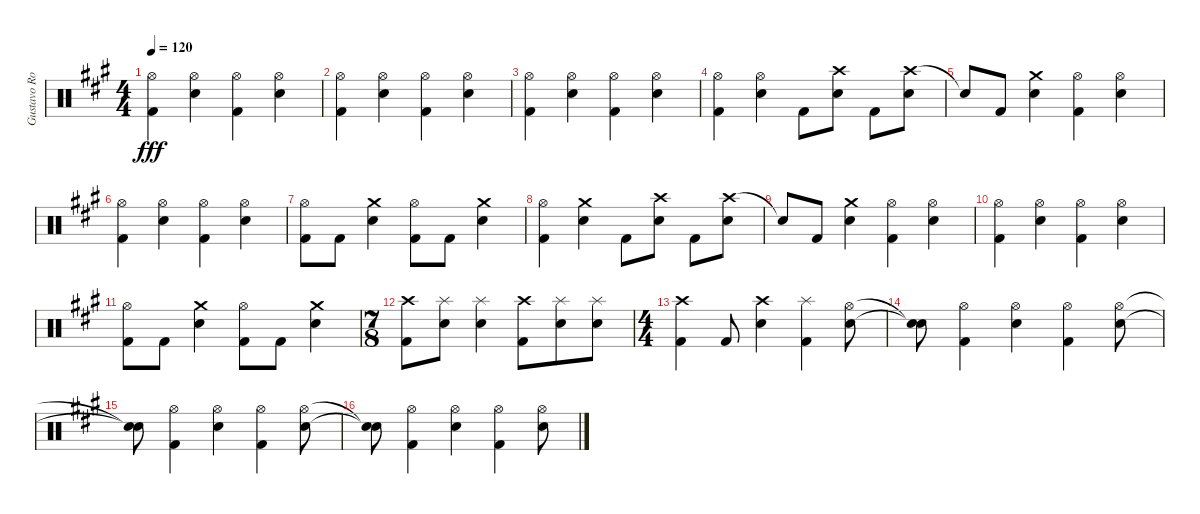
\track ("Gustavo Rowek" "Gustavo Ro") {instrument percussion}
\staff {score}
\articulation defaults
\ts (4 4)
\tempo 120
\clef neutral
\ks a
("Hi-Hat (open)" "Kick (hit) 2").4{dy fff} ("Hi-Hat (open)" "Snare (hit) 2").4 ("Hi-Hat (open)" "Kick (hit) 2").4 ("Hi-Hat (open)" "Snare (hit) 2").4 |
("Hi-Hat (open)" "Kick (hit) 2").4 ("Hi-Hat (open)" "Snare (hit) 2").4 ("Hi-Hat (open)" "Kick (hit) 2").4 ("Hi-Hat (open)" "Snare (hit) 2").4 |
("Hi-Hat (open)" "Kick (hit) 2").4 ("Hi-Hat (open)" "Snare (hit) 2").4 ("Hi-Hat (open)" "Kick (hit) 2").4 ("Hi-Hat (open)" "Snare (hit) 2").4 |
("Hi-Hat (open)" "Kick (hit) 2").4 ("Hi-Hat (open)" "Snare (hit) 2").4 "Kick (hit) 2".8 ("Crash high (hit)" "Snare (hit) 2").8 "Kick (hit) 2".8 ("Crash high (hit)" "Snare (hit) 2").8 |
"Snare (hit)"{t}.8 "Kick (hit) 2".8 ("Crash medium (hit)" "Snare (hit) 2").4 ("Hi-Hat (open)" "Kick (hit) 2").4 ("Hi-Hat (open)" "Snare (hit) 2").4 |
("Hi-Hat (open)" "Kick (hit) 2").4 ("Hi-Hat (open)" "Snare (hit) 2").4 ("Hi-Hat (open)" "Kick (hit) 2").4 ("Hi-Hat (open)" "Snare (hit) 2").4 |
("Hi-Hat (open)" "Kick (hit) 2").8 "Kick (hit) 2".8 ("Crash medium (hit)" "Snare (hit) 2").4 ("Hi-Hat (open)" "Kick (hit) 2").8 "Kick (hit) 2".8 ("Crash medium (hit)" "Snare (hit) 2").4 |
("Hi-Hat (open)" "Kick (hit) 2").4 ("Crash medium (hit)" "Snare (hit) 2").4 "Kick (hit) 2".8 ("Crash high (hit)" "Snare (hit) 2").8 "Kick (hit) 2".8 ("Crash high (hit)" "Snare (hit) 2").8 |
"Snare (hit)"{t}.8 "Kick (hit) 2".8 ("Crash medium (hit)" "Snare (hit) 2").4 ("Hi-Hat (open)" "Kick (hit) 2").4 ("Hi-Hat (open)" "Snare (hit) 2").4 |
("Hi-Hat (open)" "Kick (hit) 2").4 ("Hi-Hat (open)" "Snare (hit) 2").4 ("Hi-Hat (open)" "Kick (hit) 2").4 ("Hi-Hat (open)" "Snare (hit) 2").4 |
("Hi-Hat (open)" "Kick (hit) 2").8 "Kick (hit) 2".8 ("Crash medium (hit)" "Snare (hit) 2").4 ("Hi-Hat (open)" "Kick (hit) 2").8 "Kick (hit) 2".8 ("Crash medium (hit)" "Snare (hit) 2").4 |
\ts (7 8)
("Crash high (hit)" "Kick (hit) 2").8 ("Splash (hit)" "Snare (hit) 2").8 ("Splash (hit)" "Snare (hit) 2").4 ("Crash high (hit)" "Kick (hit) 2").8 ("Splash (hit)" "Snare (hit) 2").8 ("Splash (hit)" "Snare (hit) 2").8 |
\ts (4 4)
("Crash high (hit)" "Kick (hit) 2").4 "Kick (hit) 2".8 ("Crash high (hit)" "Snare (hit) 2").4 ("Splash (hit)" "Kick (hit) 2").4 ("Hi-Hat (open)" "Snare (hit) 2").8 |
("Snare (hit)"{t} "Snare (hit)"{t}).8 ("Hi-Hat (open)" "Kick (hit) 2").4 ("Hi-Hat (open)" "Snare (hit) 2").4 ("Hi-Hat (open)" "Kick (hit) 2").4 ("Hi-Hat (open)" "Snare (hit) 2").8 |
("Snare (hit)"{t} "Snare (hit)"{t}).8 ("Hi-Hat (open)" "Kick (hit) 2").4 ("Hi-Hat (open)" "Snare (hit) 2").4 ("Hi-Hat (open)" "Kick (hit) 2").4 ("Hi-Hat (open)" "Snare (hit) 2").8 |
("Snare (hit)"{t} "Snare (hit)"{t}).8 ("Hi-Hat (open)" "Kick (hit) 2").4 ("Hi-Hat (open)" "Snare (hit) 2").4 ("Hi-Hat (open)" "Kick (hit) 2").4 ("Hi-Hat (open)" "Snare (hit) 2").8
